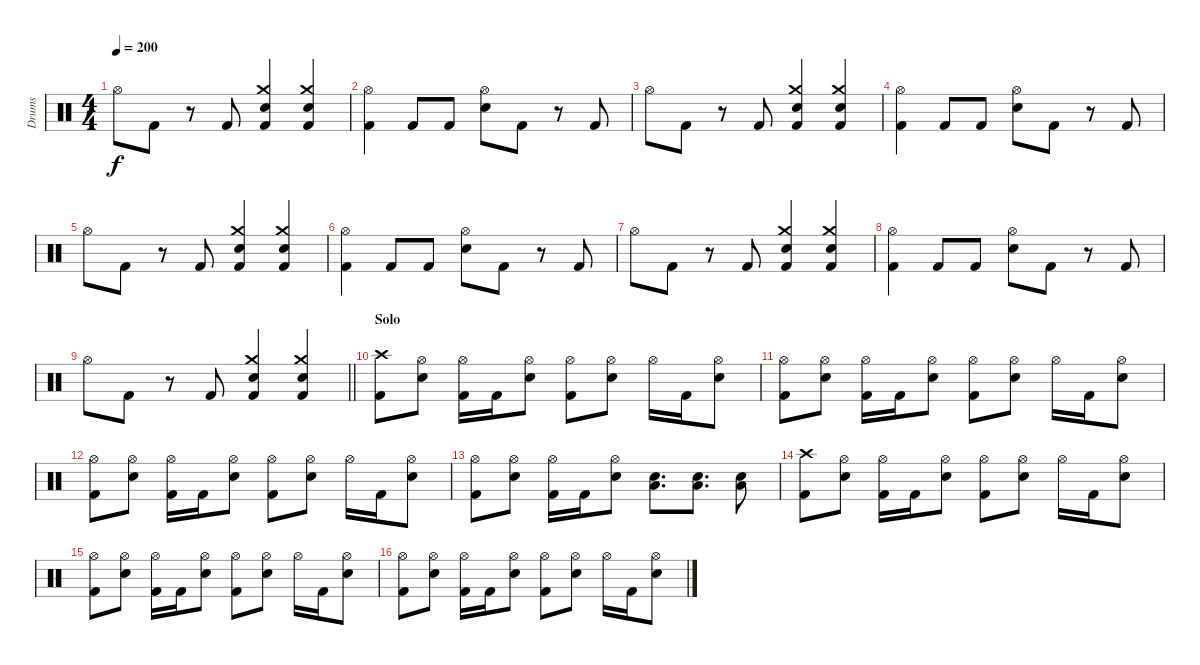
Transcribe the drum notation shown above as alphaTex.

\track ("Drums" "Drums") {instrument percussion}
\staff {score}
\articulation defaults
\ts (4 4)
\tempo 200
\clef neutral
\ks c "Hi-Hat (open)".8{dy f} "Kick (hit) 2".8
r.8 "Kick (hit) 2".8 ("Crash medium (hit)" "Electric Snare (hit)" "Kick (hit) 2").4 ("Crash medium (hit)" "Electric Snare (hit)" "Kick (hit) 2").4 |
("Hi-Hat (open)" "Kick (hit) 2").4 "Kick (hit) 2".8 "Kick (hit) 2".8 ("Hi-Hat (open)" "Electric Snare (hit)").8 "Kick (hit) 2".8 r.8 "Kick (hit) 2".8 |
"Hi-Hat (open)".8 "Kick (hit) 2".8 r.8 "Kick (hit) 2".8 ("Crash medium (hit)" "Electric Snare (hit)" "Kick (hit) 2").4 ("Crash medium (hit)" "Electric Snare (hit)" "Kick (hit) 2").4 |
("Hi-Hat (open)" "Kick (hit) 2").4 "Kick (hit) 2".8 "Kick (hit) 2".8 ("Hi-Hat (open)" "Electric Snare (hit)").8 "Kick (hit) 2".8 r.8 "Kick (hit) 2".8 |
"Hi-Hat (open)".8 "Kick (hit) 2".8 r.8 "Kick (hit) 2".8 ("Crash medium (hit)" "Electric Snare (hit)" "Kick (hit) 2").4 ("Crash medium (hit)" "Electric Snare (hit)" "Kick (hit) 2").4 |
("Hi-Hat (open)" "Kick (hit) 2").4 "Kick (hit) 2".8 "Kick (hit) 2".8 ("Hi-Hat (open)" "Electric Snare (hit)").8 "Kick (hit) 2".8 r.8 "Kick (hit) 2".8 |
"Hi-Hat (open)".8 "Kick (hit) 2".8 r.8 "Kick (hit) 2".8 ("Crash medium (hit)" "Electric Snare (hit)" "Kick (hit) 2").4 ("Crash medium (hit)" "Electric Snare (hit)" "Kick (hit) 2").4 |
("Hi-Hat (open)" "Kick (hit) 2").4 "Kick (hit) 2".8 "Kick (hit) 2".8 ("Hi-Hat (open)" "Electric Snare (hit)").8 "Kick (hit) 2".8 r.8 "Kick (hit) 2".8 |
\barLineRight lightlight "Hi-Hat (open)".8 "Kick (hit) 2".8
r.8 "Kick (hit) 2".8 ("Crash medium (hit)" "Electric Snare (hit)" "Kick (hit) 2").4 ("Crash medium (hit)" "Electric Snare (hit)" "Kick (hit) 2").4 |
\section ("" "Solo")
("Crash high (hit)" "Kick (hit) 2").8 ("Hi-Hat (open)" "Electric Snare (hit)").8 ("Hi-Hat (open)" "Kick (hit) 2").16 "Kick (hit) 2".16 ("Hi-Hat (open)" "Electric Snare (hit)").8 ("Hi-Hat (open)" "Kick (hit) 2").8 ("Hi-Hat (open)" "Electric Snare (hit)").8 "Hi-Hat (open)".16 "Kick (hit) 2".16 ("Hi-Hat (open)" "Electric Snare (hit)").8 |
("Hi-Hat (open)" "Kick (hit) 2").8 ("Hi-Hat (open)" "Electric Snare (hit)").8 ("Hi-Hat (open)" "Kick (hit) 2").16 "Kick (hit) 2".16 ("Hi-Hat (open)" "Electric Snare (hit)").8 ("Hi-Hat (open)" "Kick (hit) 2").8 ("Hi-Hat (open)" "Electric Snare (hit)").8 "Hi-Hat (open)".16 "Kick (hit) 2".16 ("Hi-Hat (open)" "Electric Snare (hit)").8 |
("Hi-Hat (open)" "Kick (hit) 2").8 ("Hi-Hat (open)" "Electric Snare (hit)").8 ("Hi-Hat (open)" "Kick (hit) 2").16 "Kick (hit) 2".16 ("Hi-Hat (open)" "Electric Snare (hit)").8 ("Hi-Hat (open)" "Kick (hit) 2").8 ("Hi-Hat (open)" "Electric Snare (hit)").8 "Hi-Hat (open)".16 "Kick (hit) 2".16 ("Hi-Hat (open)" "Electric Snare (hit)").8 |
("Hi-Hat (open)" "Kick (hit) 2").8 ("Hi-Hat (open)" "Electric Snare (hit)").8 ("Hi-Hat (open)" "Kick (hit) 2").16 "Kick (hit) 2".16 ("Hi-Hat (open)" "Electric Snare (hit)").8 ("Low Tom (hit)" "Electric Snare (hit)").8{d} ("Low Tom (hit)" "Electric Snare (hit)").8{d} ("Low Tom (hit)" "Electric Snare (hit)").8 |
("Crash high (hit)" "Kick (hit) 2").8 ("Hi-Hat (open)" "Electric Snare (hit)").8 ("Hi-Hat (open)" "Kick (hit) 2").16 "Kick (hit) 2".16 ("Hi-Hat (open)" "Electric Snare (hit)").8 ("Hi-Hat (open)" "Kick (hit) 2").8 ("Hi-Hat (open)" "Electric Snare (hit)").8 "Hi-Hat (open)".16 "Kick (hit) 2".16 ("Hi-Hat (open)" "Electric Snare (hit)").8 |
("Hi-Hat (open)" "Kick (hit) 2").8 ("Hi-Hat (open)" "Electric Snare (hit)").8 ("Hi-Hat (open)" "Kick (hit) 2").16 "Kick (hit) 2".16 ("Hi-Hat (open)" "Electric Snare (hit)").8 ("Hi-Hat (open)" "Kick (hit) 2").8 ("Hi-Hat (open)" "Electric Snare (hit)").8 "Hi-Hat (open)".16 "Kick (hit) 2".16 ("Hi-Hat (open)" "Electric Snare (hit)").8 |
("Hi-Hat (open)" "Kick (hit) 2").8 ("Hi-Hat (open)" "Electric Snare (hit)").8 ("Hi-Hat (open)" "Kick (hit) 2").16 "Kick (hit) 2".16 ("Hi-Hat (open)" "Electric Snare (hit)").8 ("Hi-Hat (open)" "Kick (hit) 2").8 ("Hi-Hat (open)" "Electric Snare (hit)").8 "Hi-Hat (open)".16 "Kick (hit) 2".16 ("Hi-Hat (open)" "Electric Snare (hit)").8
